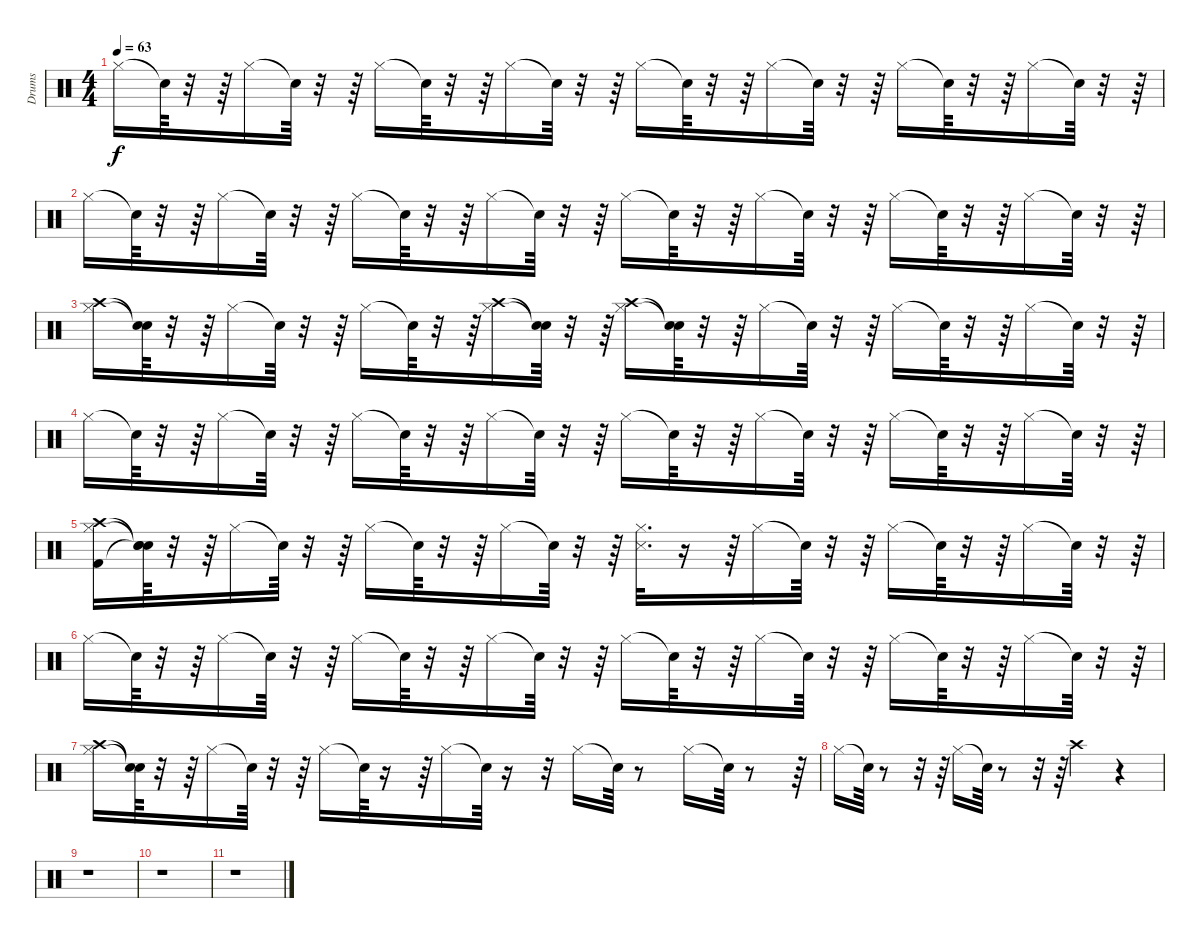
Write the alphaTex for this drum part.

\track ("Drums" "Drums") {instrument percussion}
\staff {score}
\articulation defaults
\ts (4 4)
\tempo 63
\clef neutral
\ks c "Hi-Hat (closed)".16{dy f} "Snare (hit)"{t}.64
r.32 r.64 "Hi-Hat (closed)".16 "Snare (hit)"{t}.64 r.32 r.64 "Hi-Hat (closed)".16 "Snare (hit)"{t}.64 r.32 r.64 "Hi-Hat (closed)".16 "Snare (hit)"{t}.64 r.32 r.64 "Hi-Hat (closed)".16 "Snare (hit)"{t}.64 r.32 r.64 "Hi-Hat (closed)".16 "Snare (hit)"{t}.64 r.32 r.64 "Hi-Hat (closed)".16 "Snare (hit)"{t}.64 r.32 r.64 "Hi-Hat (closed)".16 "Snare (hit)"{t}.64 r.32 r.64 |
"Hi-Hat (closed)".16 "Snare (hit)"{t}.64 r.32 r.64 "Hi-Hat (closed)".16 "Snare (hit)"{t}.64 r.32 r.64 "Hi-Hat (closed)".16 "Snare (hit)"{t}.64 r.32 r.64 "Hi-Hat (closed)".16 "Snare (hit)"{t}.64 r.32 r.64 "Hi-Hat (closed)".16 "Snare (hit)"{t}.64 r.32 r.64 "Hi-Hat (closed)".16 "Snare (hit)"{t}.64 r.32 r.64 "Hi-Hat (closed)".16 "Snare (hit)"{t}.64 r.32 r.64 "Hi-Hat (closed)".16 "Snare (hit)"{t}.64 r.32 r.64 |
("Crash high (hit)" "Hi-Hat (closed)").16 ("Snare (hit)"{t} "Snare (hit)"{t}).64 r.32 r.64 "Hi-Hat (closed)".16 "Snare (hit)"{t}.64 r.32 r.64 "Hi-Hat (closed)".16 "Snare (hit)"{t}.64 r.32 r.64 ("Crash high (hit)" "Hi-Hat (closed)").16 ("Snare (hit)"{t} "Snare (hit)"{t}).64 r.32 r.64 ("Crash high (hit)" "Hi-Hat (closed)").16 ("Snare (hit)"{t} "Snare (hit)"{t}).64 r.32 r.64 "Hi-Hat (closed)".16 "Snare (hit)"{t}.64 r.32 r.64 "Hi-Hat (closed)".16 "Snare (hit)"{t}.64 r.32 r.64 "Hi-Hat (closed)".16 "Snare (hit)"{t}.64 r.32 r.64 |
"Hi-Hat (closed)".16 "Snare (hit)"{t}.64 r.32 r.64 "Hi-Hat (closed)".16 "Snare (hit)"{t}.64 r.32 r.64 "Hi-Hat (closed)".16 "Snare (hit)"{t}.64 r.32 r.64 "Hi-Hat (closed)".16 "Snare (hit)"{t}.64 r.32 r.64 "Hi-Hat (closed)".16 "Snare (hit)"{t}.64 r.32 r.64 "Hi-Hat (closed)".16 "Snare (hit)"{t}.64 r.32 r.64 "Hi-Hat (closed)".16 "Snare (hit)"{t}.64 r.32 r.64 "Hi-Hat (closed)".16 "Snare (hit)"{t}.64 r.32 r.64 |
("Crash high (hit)" "Kick (hit) 2" "Hi-Hat (closed)").16 ("Snare (hit)"{t} "Snare (hit)"{t} "Snare (hit)"{t}).64 r.32 r.64 "Hi-Hat (closed)".16 "Snare (hit)"{t}.64 r.32 r.64 "Hi-Hat (closed)".16 "Snare (hit)"{t}.64 r.32 r.64 "Hi-Hat (closed)".16 "Snare (hit)"{t}.64 r.32 r.64 ("Hi-Hat (closed)" "Snare (side stick) 3").32{d} r.16 r.64 "Hi-Hat (closed)".16 "Snare (hit)"{t}.64 r.32 r.64 "Hi-Hat (closed)".16 "Snare (hit)"{t}.64 r.32 r.64 "Hi-Hat (closed)".16 "Snare (hit)"{t}.64 r.32 r.64 |
"Hi-Hat (closed)".16 "Snare (hit)"{t}.64 r.32 r.64 "Hi-Hat (closed)".16 "Snare (hit)"{t}.64 r.32 r.64 "Hi-Hat (closed)".16 "Snare (hit)"{t}.64 r.32 r.64 "Hi-Hat (closed)".16 "Snare (hit)"{t}.64 r.32 r.64 "Hi-Hat (closed)".16 "Snare (hit)"{t}.64 r.32 r.64 "Hi-Hat (closed)".16 "Snare (hit)"{t}.64 r.32 r.64 "Hi-Hat (closed)".16 "Snare (hit)"{t}.64 r.32 r.64 "Hi-Hat (closed)".16 "Snare (hit)"{t}.64 r.32 r.64 |
("Crash high (hit)" "Hi-Hat (closed)").16 ("Snare (hit)"{t} "Snare (hit)"{t}).64 r.32 r.64 "Hi-Hat (closed)".16 "Snare (hit)"{t}.64 r.32 r.64 "Hi-Hat (closed)".16 "Snare (hit)"{t}.64 r.16 r.64 "Hi-Hat (closed)".16 "Snare (hit)"{t}.64 r.16 r.32 "Hi-Hat (closed)".16 "Snare (hit)"{t}.64 r.8 "Hi-Hat (closed)".16 "Snare (hit)"{t}.64 r.8 r.64 |
"Hi-Hat (closed)".16 "Snare (hit)"{t}.64 r.8 r.32 r.64 "Hi-Hat (closed)".16 "Snare (hit)"{t}.64 r.8 r.32 r.64 "Crash high (hit)".4 r.4 |
r.1 |
r.1 |
r.1
